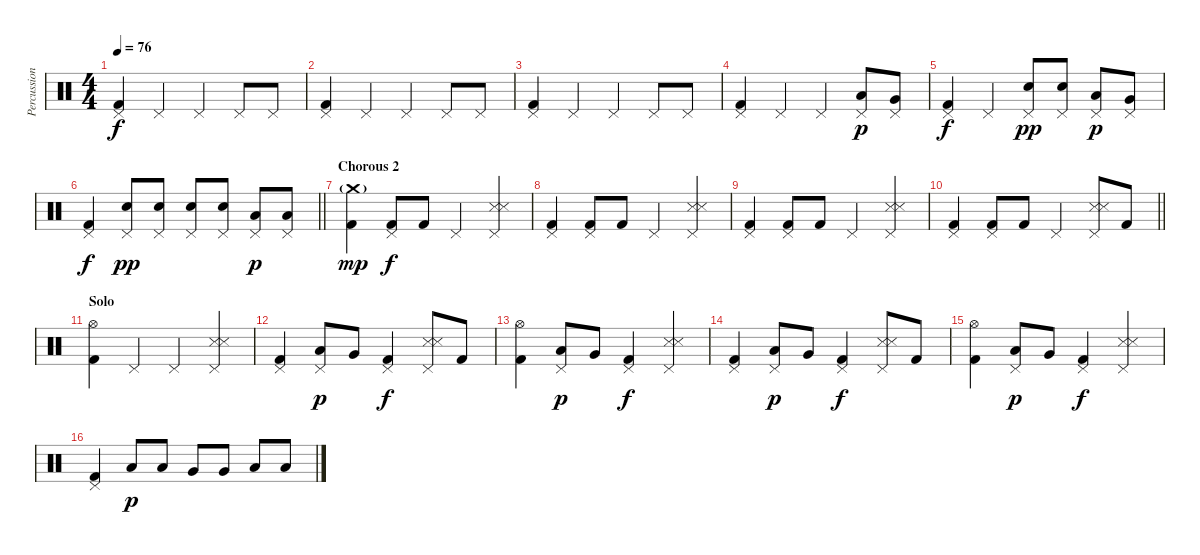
\track ("Percussion" "Percussion") {instrument percussion}
\staff {score}
\articulation defaults
\ts (4 4)
\tempo 76
\clef neutral
\ks c
("Pedal Hi-Hat (hit)" "Kick (hit) 2").4{dy f} "Pedal Hi-Hat (hit)".4 "Pedal Hi-Hat (hit)".4 "Pedal Hi-Hat (hit)".8 "Pedal Hi-Hat (hit)".8 |
("Pedal Hi-Hat (hit)" "Kick (hit) 2").4 "Pedal Hi-Hat (hit)".4 "Pedal Hi-Hat (hit)".4 "Pedal Hi-Hat (hit)".8 "Pedal Hi-Hat (hit)".8 |
("Pedal Hi-Hat (hit)" "Kick (hit) 2").4 "Pedal Hi-Hat (hit)".4 "Pedal Hi-Hat (hit)".4 "Pedal Hi-Hat (hit)".8 "Pedal Hi-Hat (hit)".8 |
("Pedal Hi-Hat (hit)" "Kick (hit) 2").4 "Pedal Hi-Hat (hit)".4 "Pedal Hi-Hat (hit)".4 ("Pedal Hi-Hat (hit)" "Low Tom (hit)").8{dy p} ("Pedal Hi-Hat (hit)" "Very Low Tom (hit)").8 |
("Pedal Hi-Hat (hit)" "Kick (hit) 2").4{dy f} "Pedal Hi-Hat (hit)".4 ("Pedal Hi-Hat (hit)" "Electric Snare (hit)").8{dy pp} ("Pedal Hi-Hat (hit)" "Electric Snare (hit)").8 ("Pedal Hi-Hat (hit)" "Low Tom (hit)").8{dy p} ("Pedal Hi-Hat (hit)" "Very Low Tom (hit)").8 |
\barLineRight lightlight
("Pedal Hi-Hat (hit)" "Kick (hit) 2").4{dy f} ("Pedal Hi-Hat (hit)" "Electric Snare (hit)").8{dy pp} ("Pedal Hi-Hat (hit)" "Electric Snare (hit)").8 ("Pedal Hi-Hat (hit)" "Electric Snare (hit)").8 ("Pedal Hi-Hat (hit)" "Electric Snare (hit)").8 ("Pedal Hi-Hat (hit)" "Low Tom (hit)").8{dy p} ("Pedal Hi-Hat (hit)" "Low Tom (hit)").8 |
\section ("" "Chorous 2")
("Crash medium (hit)"{g} "Kick (hit) 2").4{dy mp} ("Pedal Hi-Hat (hit)" "Kick (hit) 2").8{dy f} "Kick (hit) 2".8 "Pedal Hi-Hat (hit)".4 ("Pedal Hi-Hat (hit)" "Snare (side stick) 3" "Snare (side stick) 3").4 |
("Pedal Hi-Hat (hit)" "Kick (hit) 2").4 ("Pedal Hi-Hat (hit)" "Kick (hit) 2").8 "Kick (hit) 2".8 "Pedal Hi-Hat (hit)".4 ("Pedal Hi-Hat (hit)" "Snare (side stick) 3" "Snare (side stick) 3").4 |
("Pedal Hi-Hat (hit)" "Kick (hit) 2").4 ("Pedal Hi-Hat (hit)" "Kick (hit) 2").8 "Kick (hit) 2".8 "Pedal Hi-Hat (hit)".4 ("Pedal Hi-Hat (hit)" "Snare (side stick) 3" "Snare (side stick) 3").4 |
\barLineRight lightlight
("Pedal Hi-Hat (hit)" "Kick (hit) 2").4 ("Pedal Hi-Hat (hit)" "Kick (hit) 2").8 "Kick (hit) 2".8 "Pedal Hi-Hat (hit)".4 ("Pedal Hi-Hat (hit)" "Snare (side stick) 3" "Snare (side stick) 3").8 "Kick (hit) 2".8 |
\section ("" "Solo")
("Hi-Hat (open)" "Kick (hit) 2").4 "Pedal Hi-Hat (hit)".4 "Pedal Hi-Hat (hit)".4 ("Pedal Hi-Hat (hit)" "Snare (side stick) 3" "Snare (side stick) 3").4 |
("Pedal Hi-Hat (hit)" "Kick (hit) 2").4 ("Pedal Hi-Hat (hit)" "Low Tom (hit)").8{dy p} "Very Low Tom (hit)".8 ("Pedal Hi-Hat (hit)" "Kick (hit) 2").4{dy f} ("Pedal Hi-Hat (hit)" "Snare (side stick) 3" "Snare (side stick) 3").8 "Kick (hit) 2".8 |
("Hi-Hat (open)" "Kick (hit) 2").4 ("Pedal Hi-Hat (hit)" "Low Tom (hit)").8{dy p} "Very Low Tom (hit)".8 ("Pedal Hi-Hat (hit)" "Kick (hit) 2").4{dy f} ("Pedal Hi-Hat (hit)" "Snare (side stick) 3" "Snare (side stick) 3").4 |
("Pedal Hi-Hat (hit)" "Kick (hit) 2").4 ("Pedal Hi-Hat (hit)" "Low Tom (hit)").8{dy p} "Very Low Tom (hit)".8 ("Pedal Hi-Hat (hit)" "Kick (hit) 2").4{dy f} ("Pedal Hi-Hat (hit)" "Snare (side stick) 3" "Snare (side stick) 3").8 "Kick (hit) 2".8 |
("Hi-Hat (open)" "Kick (hit) 2").4 ("Pedal Hi-Hat (hit)" "Low Tom (hit)").8{dy p} "Very Low Tom (hit)".8 ("Pedal Hi-Hat (hit)" "Kick (hit) 2").4{dy f} ("Pedal Hi-Hat (hit)" "Snare (side stick) 3" "Snare (side stick) 3").4 |
("Pedal Hi-Hat (hit)" "Kick (hit) 2").4 "Low Tom (hit)".8{dy p} "Low Tom (hit)".8 "Very Low Tom (hit)".8 "Very Low Tom (hit)".8 "Low Floor Tom (hit)".8 "Low Floor Tom (hit)".8
